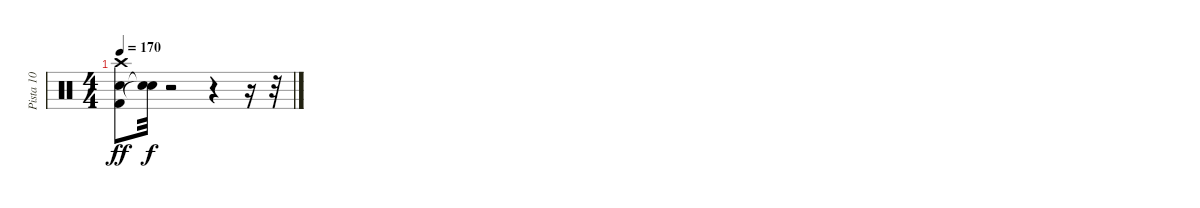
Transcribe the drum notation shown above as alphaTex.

\track ("Pista 10" "Pista 10") {instrument percussion}
\staff {score}
\articulation defaults
\ts (4 4)
\tempo 170
\clef neutral
\ks c
("Snare (hit) 2" "Kick (hit) 2" "Crash high (hit)").8{dy ff} ("Snare (hit)"{t} "Snare (hit)"{t}).32{dy f} r.2 r.4 r.16 r.32
